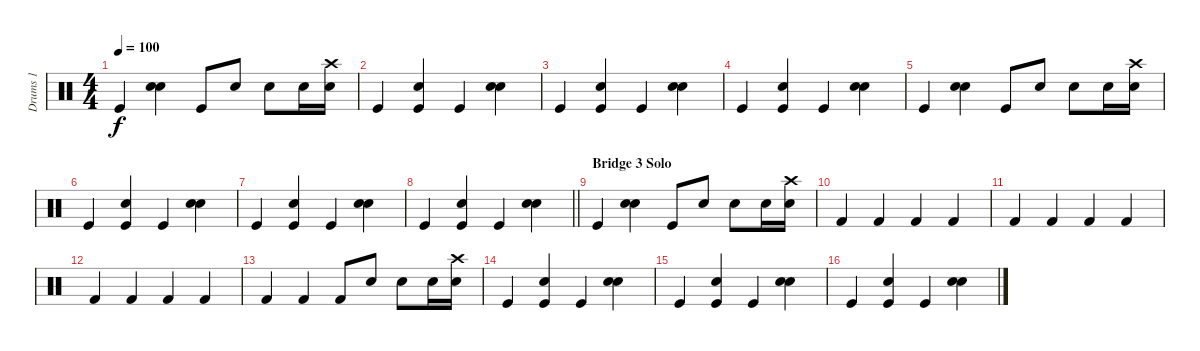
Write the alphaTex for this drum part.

\track ("Drums 1" "Drums 1") {instrument percussion}
\staff {score}
\articulation defaults
\ts (4 4)
\tempo 100
\clef neutral
\ks c "Kick (hit)".4{dy f}
("Electric Snare (hit)" "Snare (hit) 2").4 "Kick (hit)".8 "Electric Snare (hit)".8 "Electric Snare (hit)".8 "Electric Snare (hit)".16 ("Electric Snare (hit)" "Crash high (hit)").16 |
"Kick (hit)".4 ("Electric Snare (hit)" "Kick (hit)").4 "Kick (hit)".4 ("Electric Snare (hit)" "Snare (hit) 2").4 |
"Kick (hit)".4 ("Electric Snare (hit)" "Kick (hit)").4 "Kick (hit)".4 ("Electric Snare (hit)" "Snare (hit) 2").4 |
"Kick (hit)".4 ("Electric Snare (hit)" "Kick (hit)").4 "Kick (hit)".4 ("Electric Snare (hit)" "Snare (hit) 2").4 |
"Kick (hit)".4 ("Electric Snare (hit)" "Snare (hit) 2").4 "Kick (hit)".8 "Electric Snare (hit)".8 "Electric Snare (hit)".8 "Electric Snare (hit)".16 ("Electric Snare (hit)" "Crash high (hit)").16 |
"Kick (hit)".4 ("Electric Snare (hit)" "Kick (hit)").4 "Kick (hit)".4 ("Electric Snare (hit)" "Snare (hit) 2").4 |
"Kick (hit)".4 ("Electric Snare (hit)" "Kick (hit)").4 "Kick (hit)".4 ("Electric Snare (hit)" "Snare (hit) 2").4 |
\barLineRight lightlight "Kick (hit)".4
("Electric Snare (hit)" "Kick (hit)").4 "Kick (hit)".4 ("Electric Snare (hit)" "Snare (hit) 2").4 |
\section ("" "Bridge 3 Solo")
"Kick (hit)".4 ("Electric Snare (hit)" "Snare (hit) 2").4 "Kick (hit)".8 "Electric Snare (hit)".8 "Electric Snare (hit)".8 "Electric Snare (hit)".16 ("Electric Snare (hit)" "Crash high (hit)").16 |
"Kick (hit) 2".4 "Kick (hit) 2".4 "Kick (hit) 2".4 "Kick (hit) 2".4 |
"Kick (hit) 2".4 "Kick (hit) 2".4 "Kick (hit) 2".4 "Kick (hit) 2".4 |
"Kick (hit) 2".4 "Kick (hit) 2".4 "Kick (hit) 2".4 "Kick (hit) 2".4 |
"Kick (hit) 2".4 "Kick (hit) 2".4 "Kick (hit) 2".8 "Electric Snare (hit)".8 "Electric Snare (hit)".8 "Electric Snare (hit)".16 ("Electric Snare (hit)" "Crash high (hit)").16 |
"Kick (hit)".4 ("Electric Snare (hit)" "Kick (hit)").4 "Kick (hit)".4 ("Electric Snare (hit)" "Snare (hit) 2").4 |
"Kick (hit)".4 ("Electric Snare (hit)" "Kick (hit)").4 "Kick (hit)".4 ("Electric Snare (hit)" "Snare (hit) 2").4 |
"Kick (hit)".4 ("Electric Snare (hit)" "Kick (hit)").4 "Kick (hit)".4 ("Electric Snare (hit)" "Snare (hit) 2").4
